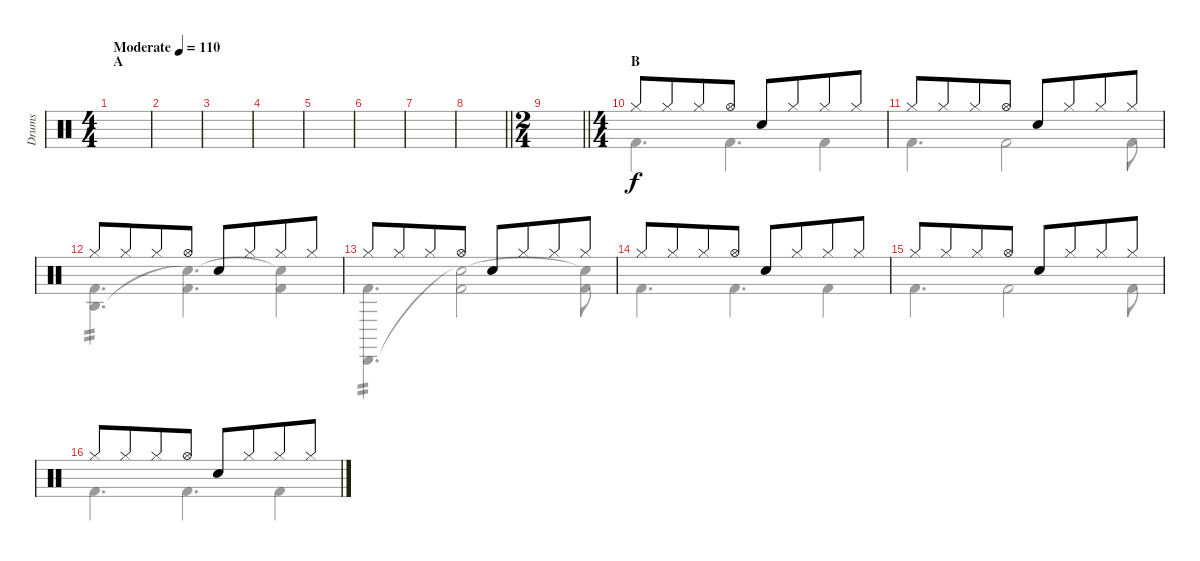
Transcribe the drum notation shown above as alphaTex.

\track ("Drums" "Drums") {instrument percussion}
\staff {score}
\articulation defaults
\voice
\ts (4 4)
\section ("" "A")
\tempo (110 "Moderate")
\clef neutral
\ks c
|
|
|
|
|
|
|
\barLineRight lightlight
|
\ts (2 4)
\barLineRight lightlight
|
\ts (4 4)
\section ("" "B")
"Hi-Hat (closed)".8 "Hi-Hat (closed)".8{beam merge} "Hi-Hat (closed)".8 "Hi-Hat (open)".8 "Snare (hit) 2".8 "Hi-Hat (closed)".8{beam merge} "Hi-Hat (closed)".8 "Hi-Hat (closed)".8 |
"Hi-Hat (closed)".8 "Hi-Hat (closed)".8{beam merge} "Hi-Hat (closed)".8 "Hi-Hat (open)".8 "Snare (hit) 2".8 "Hi-Hat (closed)".8{beam merge} "Hi-Hat (closed)".8 "Hi-Hat (closed)".8 |
"Hi-Hat (closed)".8 "Hi-Hat (closed)".8{beam merge} "Hi-Hat (closed)".8 "Hi-Hat (open)".8 "Snare (hit) 2".8 "Hi-Hat (closed)".8{beam merge} "Hi-Hat (closed)".8 "Hi-Hat (closed)".8 |
"Hi-Hat (closed)".8 "Hi-Hat (closed)".8{beam merge} "Hi-Hat (closed)".8 "Hi-Hat (open)".8 "Snare (hit) 2".8 "Hi-Hat (closed)".8{beam merge} "Hi-Hat (closed)".8 "Hi-Hat (closed)".8 |
"Hi-Hat (closed)".8 "Hi-Hat (closed)".8{beam merge} "Hi-Hat (closed)".8 "Hi-Hat (open)".8 "Snare (hit) 2".8 "Hi-Hat (closed)".8{beam merge} "Hi-Hat (closed)".8 "Hi-Hat (closed)".8 |
"Hi-Hat (closed)".8 "Hi-Hat (closed)".8{beam merge} "Hi-Hat (closed)".8 "Hi-Hat (open)".8 "Snare (hit) 2".8 "Hi-Hat (closed)".8{beam merge} "Hi-Hat (closed)".8 "Hi-Hat (closed)".8 |
"Hi-Hat (closed)".8 "Hi-Hat (closed)".8{beam merge} "Hi-Hat (closed)".8 "Hi-Hat (open)".8 "Snare (hit) 2".8 "Hi-Hat (closed)".8{beam merge} "Hi-Hat (closed)".8 "Hi-Hat (closed)".8
\voice
\clef neutral
\ottava regular
\simile none
\ks c
|
|
|
|
|
|
|
\barLineRight lightlight
|
\barLineRight lightlight
|
"Kick (hit) 2".4{d} "Kick (hit) 2".4{d} "Kick (hit) 2".4 |
"Kick (hit) 2".4{d} "Kick (hit) 2".2 "Kick (hit) 2".8 |
("Kick (hit) 2" "Agogo high (hit)").4{d tp 2} ("Kick (hit) 2" "Snare (hit)"{t}).4{d} ("Kick (hit) 2" "Snare (hit)"{t}).4 |
("Kick (hit) 2" "Cabasa (hit)").4{d tp 2} ("Kick (hit) 2" "Snare (hit)"{t}).2 ("Kick (hit) 2" "Snare (hit)"{t}).8 |
"Kick (hit) 2".4{d} "Kick (hit) 2".4{d} "Kick (hit) 2".4 |
"Kick (hit) 2".4{d} "Kick (hit) 2".2 "Kick (hit) 2".8 |
"Kick (hit) 2".4{d} "Kick (hit) 2".4{d} "Kick (hit) 2".4
